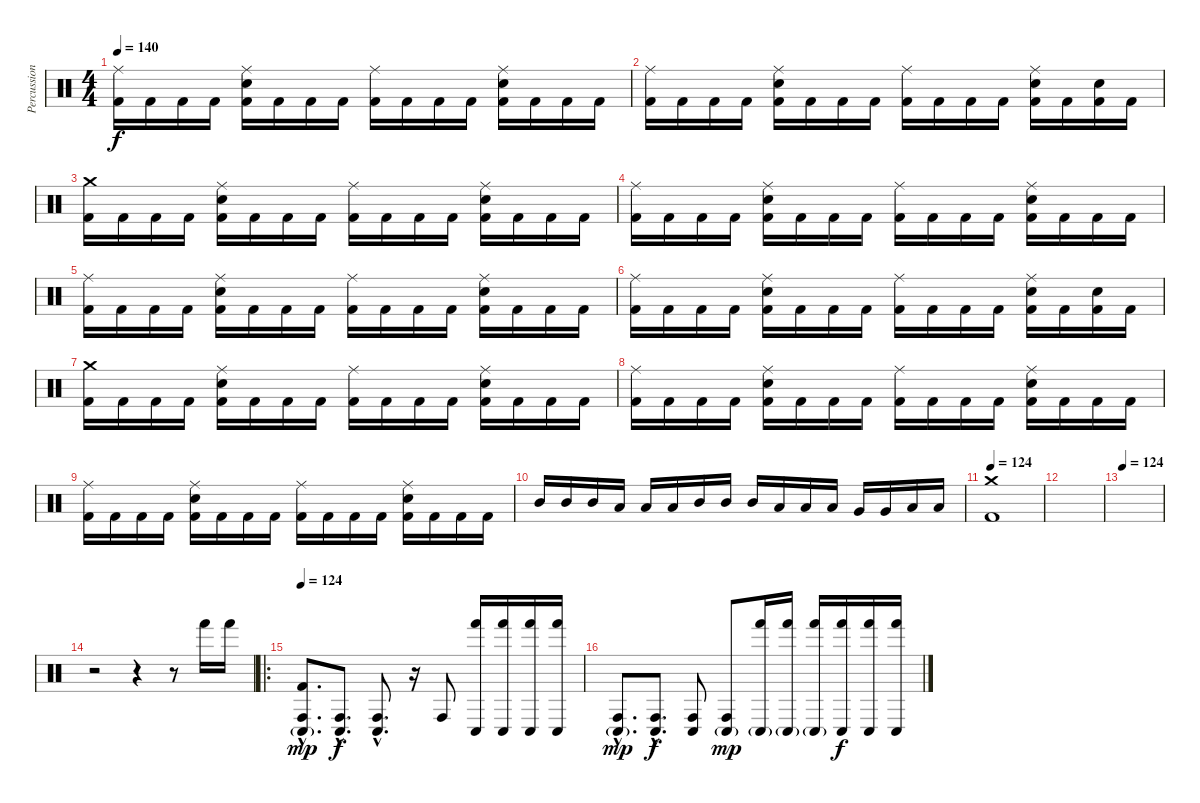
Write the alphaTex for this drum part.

\track ("Percussion" "Percussion") {instrument percussion}
\staff {score}
\articulation defaults
\ts (4 4)
\tempo 140
\clef neutral
\ks c
("Ride (middle)" "Kick (hit) 2").16{dy f} "Kick (hit) 2".16 "Kick (hit) 2".16 "Kick (hit) 2".16 ("Ride (middle)" "Electric Snare (hit)" "Kick (hit) 2").16 "Kick (hit) 2".16 "Kick (hit) 2".16 "Kick (hit) 2".16 ("Ride (middle)" "Kick (hit) 2").16 "Kick (hit) 2".16 "Kick (hit) 2".16 "Kick (hit) 2".16 ("Ride (middle)" "Electric Snare (hit)" "Kick (hit) 2").16 "Kick (hit) 2".16 "Kick (hit) 2".16 "Kick (hit) 2".16 |
("Ride (middle)" "Kick (hit) 2").16 "Kick (hit) 2".16 "Kick (hit) 2".16 "Kick (hit) 2".16 ("Ride (middle)" "Electric Snare (hit)" "Kick (hit) 2").16 "Kick (hit) 2".16 "Kick (hit) 2".16 "Kick (hit) 2".16 ("Ride (middle)" "Kick (hit) 2").16 "Kick (hit) 2".16 "Kick (hit) 2".16 "Kick (hit) 2".16 ("Ride (middle)" "Electric Snare (hit)" "Kick (hit) 2").16 "Kick (hit) 2".16 ("Electric Snare (hit)" "Kick (hit) 2").16 "Kick (hit) 2".16 |
("Crash medium (hit)" "Kick (hit) 2").16 "Kick (hit) 2".16 "Kick (hit) 2".16 "Kick (hit) 2".16 ("Ride (middle)" "Electric Snare (hit)" "Kick (hit) 2").16 "Kick (hit) 2".16 "Kick (hit) 2".16 "Kick (hit) 2".16 ("Ride (middle)" "Kick (hit) 2").16 "Kick (hit) 2".16 "Kick (hit) 2".16 "Kick (hit) 2".16 ("Ride (middle)" "Electric Snare (hit)" "Kick (hit) 2").16 "Kick (hit) 2".16 "Kick (hit) 2".16 "Kick (hit) 2".16 |
("Ride (middle)" "Kick (hit) 2").16 "Kick (hit) 2".16 "Kick (hit) 2".16 "Kick (hit) 2".16 ("Ride (middle)" "Electric Snare (hit)" "Kick (hit) 2").16 "Kick (hit) 2".16 "Kick (hit) 2".16 "Kick (hit) 2".16 ("Ride (middle)" "Kick (hit) 2").16 "Kick (hit) 2".16 "Kick (hit) 2".16 "Kick (hit) 2".16 ("Ride (middle)" "Electric Snare (hit)" "Kick (hit) 2").16 "Kick (hit) 2".16 "Kick (hit) 2".16 "Kick (hit) 2".16 |
("Ride (middle)" "Kick (hit) 2").16 "Kick (hit) 2".16 "Kick (hit) 2".16 "Kick (hit) 2".16 ("Ride (middle)" "Electric Snare (hit)" "Kick (hit) 2").16 "Kick (hit) 2".16 "Kick (hit) 2".16 "Kick (hit) 2".16 ("Ride (middle)" "Kick (hit) 2").16 "Kick (hit) 2".16 "Kick (hit) 2".16 "Kick (hit) 2".16 ("Ride (middle)" "Electric Snare (hit)" "Kick (hit) 2").16 "Kick (hit) 2".16 "Kick (hit) 2".16 "Kick (hit) 2".16 |
("Ride (middle)" "Kick (hit) 2").16 "Kick (hit) 2".16 "Kick (hit) 2".16 "Kick (hit) 2".16 ("Ride (middle)" "Electric Snare (hit)" "Kick (hit) 2").16 "Kick (hit) 2".16 "Kick (hit) 2".16 "Kick (hit) 2".16 ("Ride (middle)" "Kick (hit) 2").16 "Kick (hit) 2".16 "Kick (hit) 2".16 "Kick (hit) 2".16 ("Ride (middle)" "Electric Snare (hit)" "Kick (hit) 2").16 "Kick (hit) 2".16 ("Electric Snare (hit)" "Kick (hit) 2").16 "Kick (hit) 2".16 |
("Crash medium (hit)" "Kick (hit) 2").16 "Kick (hit) 2".16 "Kick (hit) 2".16 "Kick (hit) 2".16 ("Ride (middle)" "Electric Snare (hit)" "Kick (hit) 2").16 "Kick (hit) 2".16 "Kick (hit) 2".16 "Kick (hit) 2".16 ("Ride (middle)" "Kick (hit) 2").16 "Kick (hit) 2".16 "Kick (hit) 2".16 "Kick (hit) 2".16 ("Ride (middle)" "Electric Snare (hit)" "Kick (hit) 2").16 "Kick (hit) 2".16 "Kick (hit) 2".16 "Kick (hit) 2".16 |
("Ride (middle)" "Kick (hit) 2").16 "Kick (hit) 2".16 "Kick (hit) 2".16 "Kick (hit) 2".16 ("Ride (middle)" "Electric Snare (hit)" "Kick (hit) 2").16 "Kick (hit) 2".16 "Kick (hit) 2".16 "Kick (hit) 2".16 ("Ride (middle)" "Kick (hit) 2").16 "Kick (hit) 2".16 "Kick (hit) 2".16 "Kick (hit) 2".16 ("Ride (middle)" "Electric Snare (hit)" "Kick (hit) 2").16 "Kick (hit) 2".16 "Kick (hit) 2".16 "Kick (hit) 2".16 |
("Ride (middle)" "Kick (hit) 2").16 "Kick (hit) 2".16 "Kick (hit) 2".16 "Kick (hit) 2".16 ("Ride (middle)" "Electric Snare (hit)" "Kick (hit) 2").16 "Kick (hit) 2".16 "Kick (hit) 2".16 "Kick (hit) 2".16 ("Ride (middle)" "Kick (hit) 2").16 "Kick (hit) 2".16 "Kick (hit) 2".16 "Kick (hit) 2".16 ("Ride (middle)" "Electric Snare (hit)" "Kick (hit) 2").16 "Kick (hit) 2".16 "Kick (hit) 2".16 "Kick (hit) 2".16 |
"Mid Tom (hit)".16 "Mid Tom (hit)".16 "Mid Tom (hit)".16 "Low Tom (hit)".16 "Low Tom (hit)".16 "Low Tom (hit)".16 "Mid Tom (hit)".16 "Mid Tom (hit)".16 "Mid Tom (hit)".16 "Low Tom (hit)".16 "Low Tom (hit)".16 "Low Tom (hit)".16 "Very Low Tom (hit)".16 "Very Low Tom (hit)".16 "Low Floor Tom (hit)".16 "Low Floor Tom (hit)".16 |
\tempo 124
("Crash medium (hit)" "Kick (hit) 2").1 |
|
\tempo 124
|
r.2 r.4 r.8 "Hand (hit)".16 "Hand (hit)".16 |
\ro
\tempo 124
("Conga low (hit)"{g hac} "Conga high (hit)"{hac} "Kick (hit) 2"{hac}).8{d dy mp} ("Conga low (hit)"{hac} "Conga high (hit)"{hac}).8{d dy f} ("Conga low (hit)"{hac} "Conga high (hit)"{hac}).8{d} r.16 "Conga high (hit)".8 ("Conga low (hit)" "Hand (hit)").16 ("Conga low (hit)" "Hand (hit)").16 ("Conga low (hit)" "Hand (hit)").16 ("Conga low (hit)" "Hand (hit)").16 |
("Conga low (hit)"{g hac} "Conga high (hit)"{hac}).8{d dy mp} ("Conga low (hit)"{hac} "Conga high (hit)"{hac}).8{d dy f} ("Conga low (hit)" "Conga high (hit)").8 ("Conga low (hit)"{g} "Conga high (hit)").8{dy mp} ("Conga low (hit)"{g} "Hand (hit)").16 ("Conga low (hit)"{g} "Hand (hit)").16 ("Conga low (hit)"{g} "Hand (hit)").16 ("Conga low (hit)" "Hand (hit)").16{dy f} ("Conga low (hit)" "Hand (hit)").16 ("Conga low (hit)" "Hand (hit)").16
